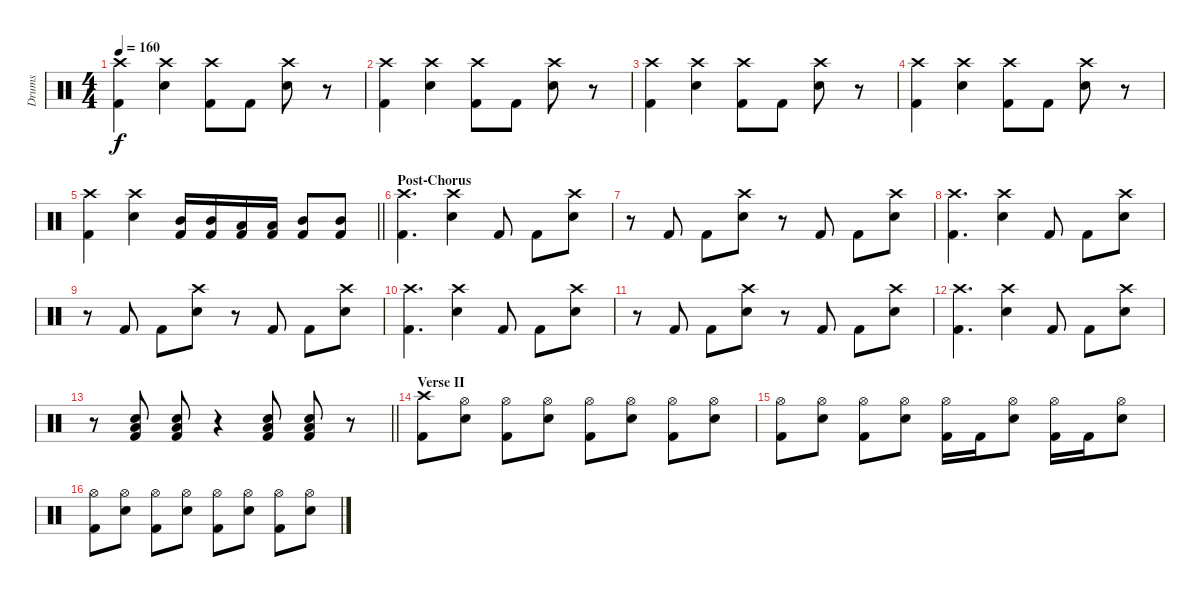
\track ("Drums" "Drums") {instrument percussion}
\staff {score}
\articulation defaults
\ts (4 4)
\tempo 160
\clef neutral
\ks c
("Crash high (hit)" "Kick (hit) 2").4{dy f} ("Crash high (hit)" "Electric Snare (hit)").4 ("Crash high (hit)" "Kick (hit) 2").8 "Kick (hit) 2".8 ("Crash high (hit)" "Electric Snare (hit)").8 r.8 |
("Crash high (hit)" "Kick (hit) 2").4 ("Crash high (hit)" "Electric Snare (hit)").4 ("Crash high (hit)" "Kick (hit) 2").8 "Kick (hit) 2".8 ("Crash high (hit)" "Electric Snare (hit)").8 r.8 |
("Crash high (hit)" "Kick (hit) 2").4 ("Crash high (hit)" "Electric Snare (hit)").4 ("Crash high (hit)" "Kick (hit) 2").8 "Kick (hit) 2".8 ("Crash high (hit)" "Electric Snare (hit)").8 r.8 |
("Crash high (hit)" "Kick (hit) 2").4 ("Crash high (hit)" "Electric Snare (hit)").4 ("Crash high (hit)" "Kick (hit) 2").8 "Kick (hit) 2".8 ("Crash high (hit)" "Electric Snare (hit)").8 r.8 |
\barLineRight lightlight
("Crash high (hit)" "Kick (hit) 2").4 ("Crash high (hit)" "Electric Snare (hit)").4 ("Mid Tom (hit)" "Kick (hit) 2").16 ("Mid Tom (hit)" "Kick (hit) 2").16 ("Low Tom (hit)" "Kick (hit) 2").16 ("Low Tom (hit)" "Kick (hit) 2").16 ("Mid Tom (hit)" "Kick (hit) 2").8 ("Mid Tom (hit)" "Kick (hit) 2").8 |
\section ("" "Post-Chorus")
("Crash high (hit)" "Kick (hit) 2").4{d} ("Crash high (hit)" "Electric Snare (hit)").4 "Kick (hit) 2".8 "Kick (hit) 2".8 ("Crash high (hit)" "Electric Snare (hit)").8 |
r.8 "Kick (hit) 2".8 "Kick (hit) 2".8 ("Crash high (hit)" "Electric Snare (hit)").8 r.8 "Kick (hit) 2".8 "Kick (hit) 2".8 ("Crash high (hit)" "Electric Snare (hit)").8 |
("Crash high (hit)" "Kick (hit) 2").4{d} ("Crash high (hit)" "Electric Snare (hit)").4 "Kick (hit) 2".8 "Kick (hit) 2".8 ("Crash high (hit)" "Electric Snare (hit)").8 |
r.8 "Kick (hit) 2".8 "Kick (hit) 2".8 ("Crash high (hit)" "Electric Snare (hit)").8 r.8 "Kick (hit) 2".8 "Kick (hit) 2".8 ("Crash high (hit)" "Electric Snare (hit)").8 |
("Crash high (hit)" "Kick (hit) 2").4{d} ("Crash high (hit)" "Electric Snare (hit)").4 "Kick (hit) 2".8 "Kick (hit) 2".8 ("Crash high (hit)" "Electric Snare (hit)").8 |
r.8 "Kick (hit) 2".8 "Kick (hit) 2".8 ("Crash high (hit)" "Electric Snare (hit)").8 r.8 "Kick (hit) 2".8 "Kick (hit) 2".8 ("Crash high (hit)" "Electric Snare (hit)").8 |
("Crash high (hit)" "Kick (hit) 2").4{d} ("Crash high (hit)" "Electric Snare (hit)").4 "Kick (hit) 2".8 "Kick (hit) 2".8 ("Crash high (hit)" "Electric Snare (hit)").8 |
\barLineRight lightlight
r.8 ("Low Tom (hit)" "Electric Snare (hit)" "Kick (hit) 2").8 ("Low Tom (hit)" "Electric Snare (hit)" "Kick (hit) 2").8 r.4 ("Low Tom (hit)" "Electric Snare (hit)" "Kick (hit) 2").8 ("Low Tom (hit)" "Electric Snare (hit)" "Kick (hit) 2").8 r.8 |
\section ("" "Verse II")
("Crash high (hit)" "Kick (hit) 2").8 ("Hi-Hat (open)" "Electric Snare (hit)").8 ("Hi-Hat (open)" "Kick (hit) 2").8 ("Hi-Hat (open)" "Electric Snare (hit)").8 ("Hi-Hat (open)" "Kick (hit) 2").8 ("Hi-Hat (open)" "Electric Snare (hit)").8 ("Hi-Hat (open)" "Kick (hit) 2").8 ("Hi-Hat (open)" "Electric Snare (hit)").8 |
("Hi-Hat (open)" "Kick (hit) 2").8 ("Hi-Hat (open)" "Electric Snare (hit)").8 ("Hi-Hat (open)" "Kick (hit) 2").8 ("Hi-Hat (open)" "Electric Snare (hit)").8 ("Hi-Hat (open)" "Kick (hit) 2").16 "Kick (hit) 2".16 ("Hi-Hat (open)" "Electric Snare (hit)").8 ("Hi-Hat (open)" "Kick (hit) 2").16 "Kick (hit) 2".16 ("Hi-Hat (open)" "Electric Snare (hit)").8 |
("Hi-Hat (open)" "Kick (hit) 2").8 ("Hi-Hat (open)" "Electric Snare (hit)").8 ("Hi-Hat (open)" "Kick (hit) 2").8 ("Hi-Hat (open)" "Electric Snare (hit)").8 ("Hi-Hat (open)" "Kick (hit) 2").8 ("Hi-Hat (open)" "Electric Snare (hit)").8 ("Hi-Hat (open)" "Kick (hit) 2").8 ("Hi-Hat (open)" "Electric Snare (hit)").8
